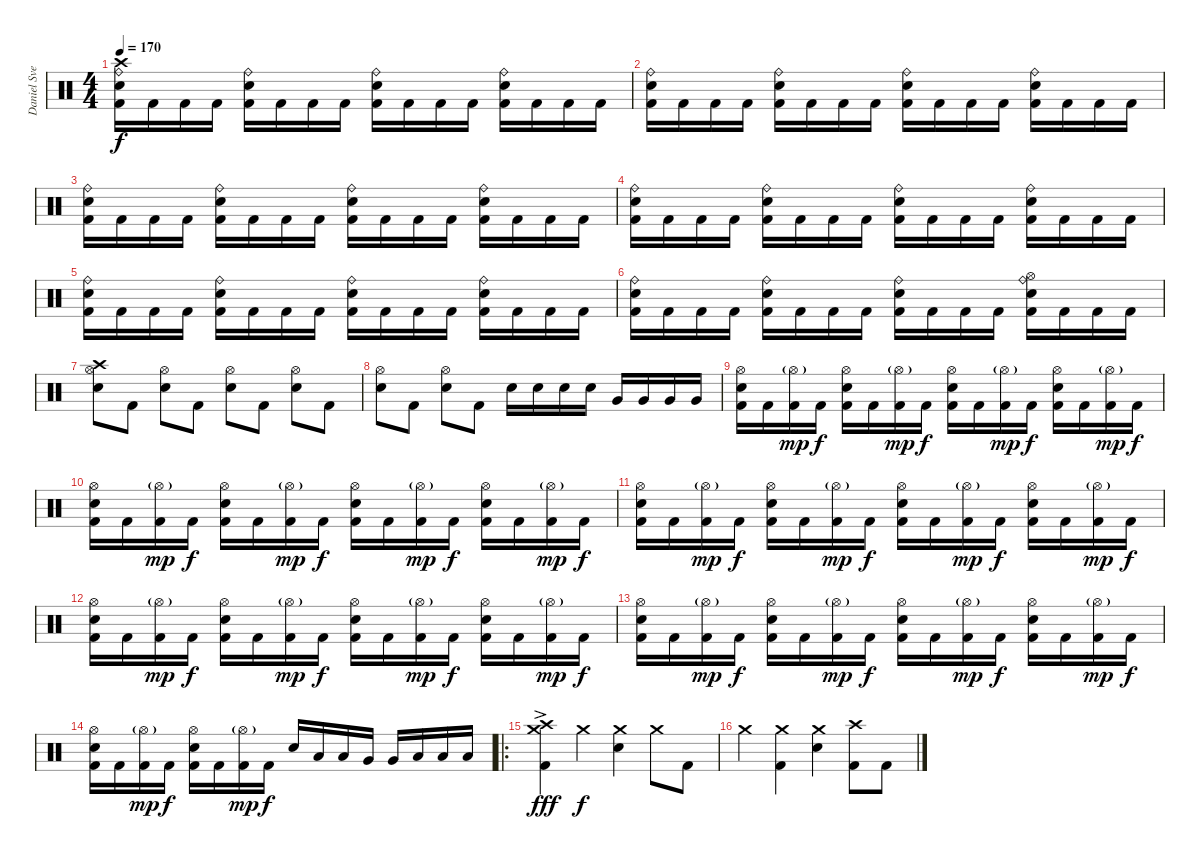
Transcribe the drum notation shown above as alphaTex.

\track ("Daniel Svensson" "Daniel Sve") {instrument percussion}
\staff {score}
\articulation defaults
\ts (4 4)
\tempo 170
\clef neutral
\ks c
("Ride (bell)" "Crash high (hit)" "Electric Snare (hit)" "Kick (hit) 2").16{dy f} "Kick (hit) 2".16 "Kick (hit) 2".16 "Kick (hit) 2".16 ("Ride (bell)" "Electric Snare (hit)" "Kick (hit) 2").16 "Kick (hit) 2".16 "Kick (hit) 2".16 "Kick (hit) 2".16 ("Ride (bell)" "Electric Snare (hit)" "Kick (hit) 2").16 "Kick (hit) 2".16 "Kick (hit) 2".16 "Kick (hit) 2".16 ("Ride (bell)" "Electric Snare (hit)" "Kick (hit) 2").16 "Kick (hit) 2".16 "Kick (hit) 2".16 "Kick (hit) 2".16 |
("Ride (bell)" "Electric Snare (hit)" "Kick (hit) 2").16 "Kick (hit) 2".16 "Kick (hit) 2".16 "Kick (hit) 2".16 ("Ride (bell)" "Electric Snare (hit)" "Kick (hit) 2").16 "Kick (hit) 2".16 "Kick (hit) 2".16 "Kick (hit) 2".16 ("Ride (bell)" "Electric Snare (hit)" "Kick (hit) 2").16 "Kick (hit) 2".16 "Kick (hit) 2".16 "Kick (hit) 2".16 ("Ride (bell)" "Electric Snare (hit)" "Kick (hit) 2").16 "Kick (hit) 2".16 "Kick (hit) 2".16 "Kick (hit) 2".16 |
("Ride (bell)" "Electric Snare (hit)" "Kick (hit) 2").16 "Kick (hit) 2".16 "Kick (hit) 2".16 "Kick (hit) 2".16 ("Ride (bell)" "Electric Snare (hit)" "Kick (hit) 2").16 "Kick (hit) 2".16 "Kick (hit) 2".16 "Kick (hit) 2".16 ("Ride (bell)" "Electric Snare (hit)" "Kick (hit) 2").16 "Kick (hit) 2".16 "Kick (hit) 2".16 "Kick (hit) 2".16 ("Ride (bell)" "Electric Snare (hit)" "Kick (hit) 2").16 "Kick (hit) 2".16 "Kick (hit) 2".16 "Kick (hit) 2".16 |
("Ride (bell)" "Electric Snare (hit)" "Kick (hit) 2").16 "Kick (hit) 2".16 "Kick (hit) 2".16 "Kick (hit) 2".16 ("Ride (bell)" "Electric Snare (hit)" "Kick (hit) 2").16 "Kick (hit) 2".16 "Kick (hit) 2".16 "Kick (hit) 2".16 ("Ride (bell)" "Electric Snare (hit)" "Kick (hit) 2").16 "Kick (hit) 2".16 "Kick (hit) 2".16 "Kick (hit) 2".16 ("Ride (bell)" "Electric Snare (hit)" "Kick (hit) 2").16 "Kick (hit) 2".16 "Kick (hit) 2".16 "Kick (hit) 2".16 |
("Ride (bell)" "Electric Snare (hit)" "Kick (hit) 2").16 "Kick (hit) 2".16 "Kick (hit) 2".16 "Kick (hit) 2".16 ("Ride (bell)" "Electric Snare (hit)" "Kick (hit) 2").16 "Kick (hit) 2".16 "Kick (hit) 2".16 "Kick (hit) 2".16 ("Ride (bell)" "Electric Snare (hit)" "Kick (hit) 2").16 "Kick (hit) 2".16 "Kick (hit) 2".16 "Kick (hit) 2".16 ("Ride (bell)" "Electric Snare (hit)" "Kick (hit) 2").16 "Kick (hit) 2".16 "Kick (hit) 2".16 "Kick (hit) 2".16 |
("Ride (bell)" "Electric Snare (hit)" "Kick (hit) 2").16 "Kick (hit) 2".16 "Kick (hit) 2".16 "Kick (hit) 2".16 ("Ride (bell)" "Electric Snare (hit)" "Kick (hit) 2").16 "Kick (hit) 2".16 "Kick (hit) 2".16 "Kick (hit) 2".16 ("Ride (bell)" "Electric Snare (hit)" "Kick (hit) 2").16 "Kick (hit) 2".16 "Kick (hit) 2".16 "Kick (hit) 2".16 ("Ride (bell)" "Hi-Hat (open)" "Electric Snare (hit)" "Kick (hit) 2").16 "Kick (hit) 2".16 "Kick (hit) 2".16 "Kick (hit) 2".16 |
("Crash high (hit)" "Hi-Hat (open)" "Electric Snare (hit)").8 "Kick (hit) 2".8 ("Hi-Hat (open)" "Electric Snare (hit)").8 "Kick (hit) 2".8 ("Hi-Hat (open)" "Electric Snare (hit)").8 "Kick (hit) 2".8 ("Hi-Hat (open)" "Electric Snare (hit)").8 "Kick (hit) 2".8 |
("Hi-Hat (open)" "Electric Snare (hit)").8 "Kick (hit) 2".8 ("Hi-Hat (open)" "Electric Snare (hit)").8 "Kick (hit) 2".8 "Electric Snare (hit)".16 "Electric Snare (hit)".16 "Electric Snare (hit)".16 "Electric Snare (hit)".16 "Very Low Tom (hit)".16 "Very Low Tom (hit)".16 "Very Low Tom (hit)".16 "Very Low Tom (hit)".16 |
("Hi-Hat (open)" "Electric Snare (hit)" "Kick (hit) 2").16 "Kick (hit) 2".16 ("Hi-Hat (open)"{g} "Kick (hit) 2").16{dy mp} "Kick (hit) 2".16{dy f} ("Hi-Hat (open)" "Electric Snare (hit)" "Kick (hit) 2").16 "Kick (hit) 2".16 ("Hi-Hat (open)"{g} "Kick (hit) 2").16{dy mp} "Kick (hit) 2".16{dy f} ("Hi-Hat (open)" "Electric Snare (hit)" "Kick (hit) 2").16 "Kick (hit) 2".16 ("Hi-Hat (open)"{g} "Kick (hit) 2").16{dy mp} "Kick (hit) 2".16{dy f} ("Hi-Hat (open)" "Electric Snare (hit)" "Kick (hit) 2").16 "Kick (hit) 2".16 ("Hi-Hat (open)"{g} "Kick (hit) 2").16{dy mp} "Kick (hit) 2".16{dy f} |
("Hi-Hat (open)" "Electric Snare (hit)" "Kick (hit) 2").16 "Kick (hit) 2".16 ("Hi-Hat (open)"{g} "Kick (hit) 2").16{dy mp} "Kick (hit) 2".16{dy f} ("Hi-Hat (open)" "Electric Snare (hit)" "Kick (hit) 2").16 "Kick (hit) 2".16 ("Hi-Hat (open)"{g} "Kick (hit) 2").16{dy mp} "Kick (hit) 2".16{dy f} ("Hi-Hat (open)" "Electric Snare (hit)" "Kick (hit) 2").16 "Kick (hit) 2".16 ("Hi-Hat (open)"{g} "Kick (hit) 2").16{dy mp} "Kick (hit) 2".16{dy f} ("Hi-Hat (open)" "Electric Snare (hit)" "Kick (hit) 2").16 "Kick (hit) 2".16 ("Hi-Hat (open)"{g} "Kick (hit) 2").16{dy mp} "Kick (hit) 2".16{dy f} |
("Hi-Hat (open)" "Electric Snare (hit)" "Kick (hit) 2").16 "Kick (hit) 2".16 ("Hi-Hat (open)"{g} "Kick (hit) 2").16{dy mp} "Kick (hit) 2".16{dy f} ("Hi-Hat (open)" "Electric Snare (hit)" "Kick (hit) 2").16 "Kick (hit) 2".16 ("Hi-Hat (open)"{g} "Kick (hit) 2").16{dy mp} "Kick (hit) 2".16{dy f} ("Hi-Hat (open)" "Electric Snare (hit)" "Kick (hit) 2").16 "Kick (hit) 2".16 ("Hi-Hat (open)"{g} "Kick (hit) 2").16{dy mp} "Kick (hit) 2".16{dy f} ("Hi-Hat (open)" "Electric Snare (hit)" "Kick (hit) 2").16 "Kick (hit) 2".16 ("Hi-Hat (open)"{g} "Kick (hit) 2").16{dy mp} "Kick (hit) 2".16{dy f} |
("Hi-Hat (open)" "Electric Snare (hit)" "Kick (hit) 2").16 "Kick (hit) 2".16 ("Hi-Hat (open)"{g} "Kick (hit) 2").16{dy mp} "Kick (hit) 2".16{dy f} ("Hi-Hat (open)" "Electric Snare (hit)" "Kick (hit) 2").16 "Kick (hit) 2".16 ("Hi-Hat (open)"{g} "Kick (hit) 2").16{dy mp} "Kick (hit) 2".16{dy f} ("Hi-Hat (open)" "Electric Snare (hit)" "Kick (hit) 2").16 "Kick (hit) 2".16 ("Hi-Hat (open)"{g} "Kick (hit) 2").16{dy mp} "Kick (hit) 2".16{dy f} ("Hi-Hat (open)" "Electric Snare (hit)" "Kick (hit) 2").16 "Kick (hit) 2".16 ("Hi-Hat (open)"{g} "Kick (hit) 2").16{dy mp} "Kick (hit) 2".16{dy f} |
("Hi-Hat (open)" "Electric Snare (hit)" "Kick (hit) 2").16 "Kick (hit) 2".16 ("Hi-Hat (open)"{g} "Kick (hit) 2").16{dy mp} "Kick (hit) 2".16{dy f} ("Hi-Hat (open)" "Electric Snare (hit)" "Kick (hit) 2").16 "Kick (hit) 2".16 ("Hi-Hat (open)"{g} "Kick (hit) 2").16{dy mp} "Kick (hit) 2".16{dy f} ("Hi-Hat (open)" "Electric Snare (hit)" "Kick (hit) 2").16 "Kick (hit) 2".16 ("Hi-Hat (open)"{g} "Kick (hit) 2").16{dy mp} "Kick (hit) 2".16{dy f} ("Hi-Hat (open)" "Electric Snare (hit)" "Kick (hit) 2").16 "Kick (hit) 2".16 ("Hi-Hat (open)"{g} "Kick (hit) 2").16{dy mp} "Kick (hit) 2".16{dy f} |
("Hi-Hat (open)" "Electric Snare (hit)" "Kick (hit) 2").16 "Kick (hit) 2".16 ("Hi-Hat (open)"{g} "Kick (hit) 2").16{dy mp} "Kick (hit) 2".16{dy f} ("Hi-Hat (open)" "Electric Snare (hit)" "Kick (hit) 2").16 "Kick (hit) 2".16 ("Hi-Hat (open)"{g} "Kick (hit) 2").16{dy mp} "Kick (hit) 2".16{dy f} "Electric Snare (hit)".16 "Low Tom (hit)".16 "Low Tom (hit)".16 "Very Low Tom (hit)".16 "Very Low Tom (hit)".16 "Low Floor Tom (hit)".16 "Low Floor Tom (hit)".16 "Low Floor Tom (hit)".16 |
\ro
("Crash high (hit)"{ac} "Crash medium (hit)"{ac} "Kick (hit) 2"{ac}).4{dy fff} "Crash medium (hit)".4{dy f} ("Crash medium (hit)" "Electric Snare (hit)").4 "Crash medium (hit)".8 "Kick (hit) 2".8 |
"Crash medium (hit)".4 ("Crash medium (hit)" "Kick (hit) 2").4 ("Crash medium (hit)" "Electric Snare (hit)").4 ("Crash high (hit)" "Kick (hit) 2").8 "Kick (hit) 2".8
